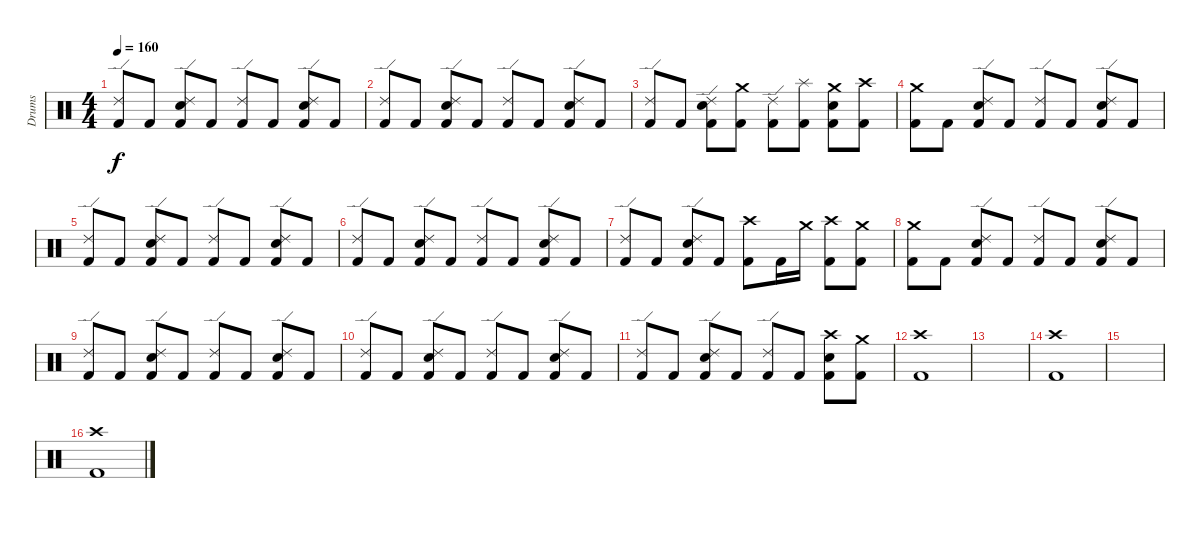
\track ("Drums" "Drums") {instrument percussion}
\staff {score}
\articulation defaults
\ts (4 4)
\tempo 160
\clef neutral
\ks c
("Ride (edge) 2" "Kick (hit) 2").8{dy f} "Kick (hit) 2".8 ("Ride (edge) 2" "Electric Snare (hit)" "Kick (hit) 2").8 "Kick (hit) 2".8 ("Ride (edge) 2" "Kick (hit) 2").8 "Kick (hit) 2".8 ("Ride (edge) 2" "Electric Snare (hit)" "Kick (hit) 2").8 "Kick (hit) 2".8 |
("Ride (edge) 2" "Kick (hit) 2").8 "Kick (hit) 2".8 ("Ride (edge) 2" "Electric Snare (hit)" "Kick (hit) 2").8 "Kick (hit) 2".8 ("Ride (edge) 2" "Kick (hit) 2").8 "Kick (hit) 2".8 ("Ride (edge) 2" "Electric Snare (hit)" "Kick (hit) 2").8 "Kick (hit) 2".8 |
("Ride (edge) 2" "Kick (hit) 2").8 "Kick (hit) 2".8 ("Ride (edge) 2" "Electric Snare (hit)" "Kick (hit) 2").8 ("Crash medium (hit)" "Kick (hit) 2").8 ("Ride (edge) 2" "Kick (hit) 2").8 ("Splash (hit)" "Kick (hit) 2").8 ("Crash medium (hit)" "Electric Snare (hit)" "Kick (hit) 2").8 ("Crash high (hit)" "Kick (hit) 2").8 |
("Crash medium (hit)" "Kick (hit) 2").8 "Kick (hit) 2".8 ("Ride (edge) 2" "Electric Snare (hit)" "Kick (hit) 2").8 "Kick (hit) 2".8 ("Ride (edge) 2" "Kick (hit) 2").8 "Kick (hit) 2".8 ("Ride (edge) 2" "Electric Snare (hit)" "Kick (hit) 2").8 "Kick (hit) 2".8 |
("Ride (edge) 2" "Kick (hit) 2").8 "Kick (hit) 2".8 ("Ride (edge) 2" "Electric Snare (hit)" "Kick (hit) 2").8 "Kick (hit) 2".8 ("Ride (edge) 2" "Kick (hit) 2").8 "Kick (hit) 2".8 ("Ride (edge) 2" "Electric Snare (hit)" "Kick (hit) 2").8 "Kick (hit) 2".8 |
("Ride (edge) 2" "Kick (hit) 2").8 "Kick (hit) 2".8 ("Ride (edge) 2" "Electric Snare (hit)" "Kick (hit) 2").8 "Kick (hit) 2".8 ("Ride (edge) 2" "Kick (hit) 2").8 "Kick (hit) 2".8 ("Ride (edge) 2" "Electric Snare (hit)" "Kick (hit) 2").8 "Kick (hit) 2".8 |
("Ride (edge) 2" "Kick (hit) 2").8 "Kick (hit) 2".8 ("Ride (edge) 2" "Electric Snare (hit)" "Kick (hit) 2").8 "Kick (hit) 2".8 ("Crash high (hit)" "Kick (hit) 2").8 "Kick (hit) 2".16 "Crash medium (hit)".16 ("Crash high (hit)" "Kick (hit) 2").8 ("Crash medium (hit)" "Kick (hit) 2").8 |
("Crash medium (hit)" "Kick (hit) 2").8 "Kick (hit) 2".8 ("Ride (edge) 2" "Electric Snare (hit)" "Kick (hit) 2").8 "Kick (hit) 2".8 ("Ride (edge) 2" "Kick (hit) 2").8 "Kick (hit) 2".8 ("Ride (edge) 2" "Electric Snare (hit)" "Kick (hit) 2").8 "Kick (hit) 2".8 |
("Ride (edge) 2" "Kick (hit) 2").8 "Kick (hit) 2".8 ("Ride (edge) 2" "Electric Snare (hit)" "Kick (hit) 2").8 "Kick (hit) 2".8 ("Ride (edge) 2" "Kick (hit) 2").8 "Kick (hit) 2".8 ("Ride (edge) 2" "Electric Snare (hit)" "Kick (hit) 2").8 "Kick (hit) 2".8 |
("Ride (edge) 2" "Kick (hit) 2").8 "Kick (hit) 2".8 ("Ride (edge) 2" "Electric Snare (hit)" "Kick (hit) 2").8 "Kick (hit) 2".8 ("Ride (edge) 2" "Kick (hit) 2").8 "Kick (hit) 2".8 ("Ride (edge) 2" "Electric Snare (hit)" "Kick (hit) 2").8 "Kick (hit) 2".8 |
("Ride (edge) 2" "Kick (hit) 2").8 "Kick (hit) 2".8 ("Ride (edge) 2" "Electric Snare (hit)" "Kick (hit) 2").8 "Kick (hit) 2".8 ("Ride (edge) 2" "Kick (hit) 2").8 "Kick (hit) 2".8 ("Crash high (hit)" "Electric Snare (hit)" "Kick (hit) 2").8 ("Crash medium (hit)" "Kick (hit) 2").8 |
("Crash high (hit)" "Kick (hit) 2").1 |
|
("Crash high (hit)" "Kick (hit) 2").1 |
|
("Crash high (hit)" "Kick (hit) 2").1
